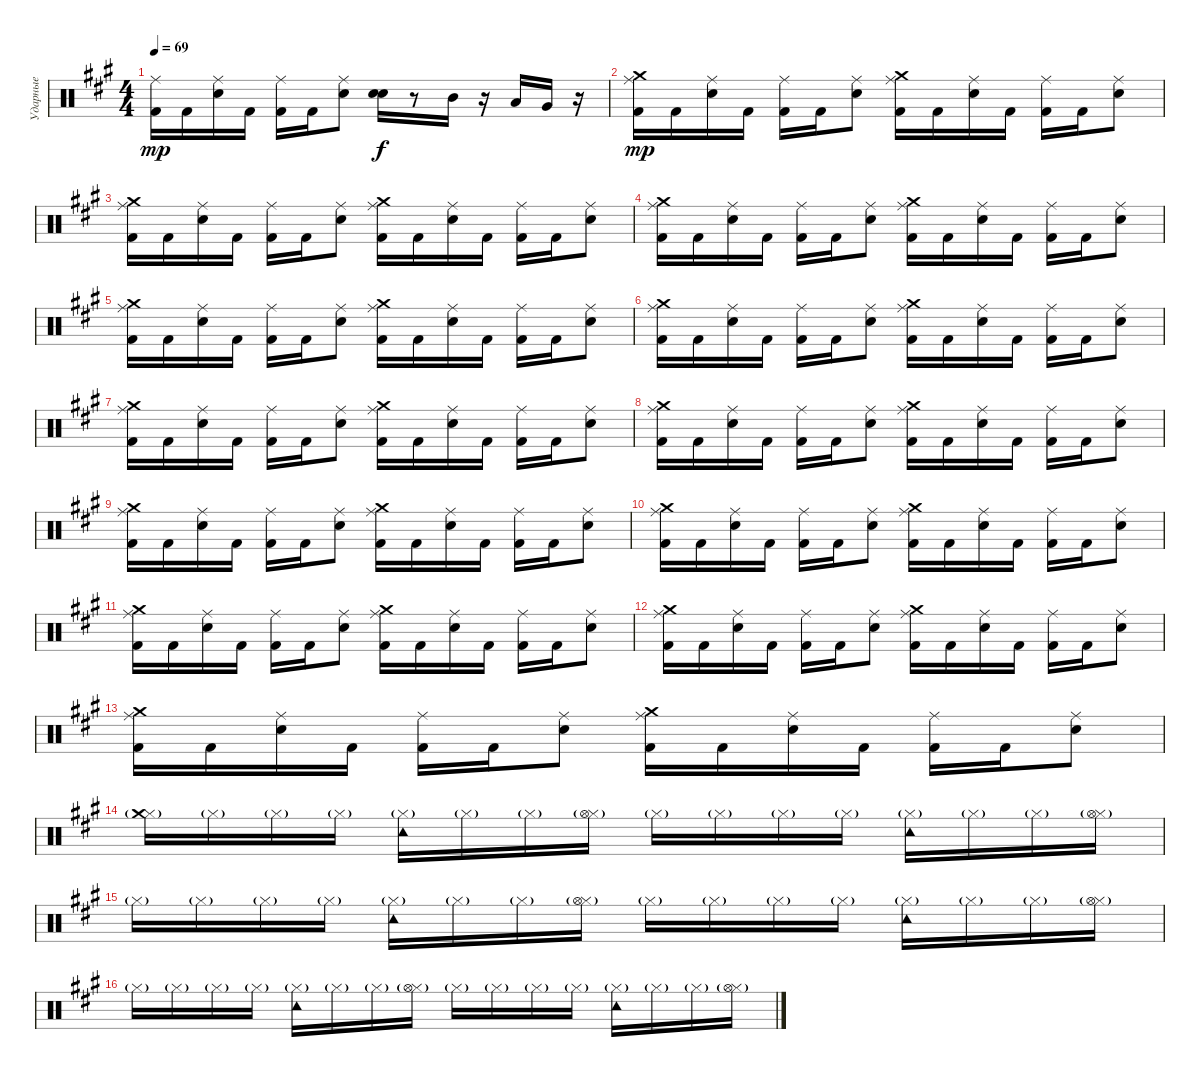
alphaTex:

\track ("Ударные" "Ударные") {instrument percussion}
\staff {score}
\articulation defaults
\ts (4 4)
\tempo 69
\clef neutral
\ks a
("Kick (hit) 2" "Ride (middle)").16{dy mp} "Kick (hit) 2".16 ("Electric Snare (hit)" "Ride (middle)").16 "Kick (hit) 2".16 ("Kick (hit) 2" "Ride (middle)").16 "Kick (hit) 2".16 ("Electric Snare (hit)" "Ride (middle)").8 ("Electric Snare (hit)" "Electric Snare (hit)").16{dy f} r.8 "Mid Tom (hit)".16 r.16 "Low Tom (hit)".16 "Very Low Tom (hit)".16 r.16 |
("Kick (hit) 2" "Ride (middle)" "Crash medium (hit)").16{dy mp} "Kick (hit) 2".16 ("Electric Snare (hit)" "Ride (middle)").16 "Kick (hit) 2".16 ("Kick (hit) 2" "Ride (middle)").16 "Kick (hit) 2".16 ("Electric Snare (hit)" "Ride (middle)").8 ("Kick (hit) 2" "Ride (middle)" "Crash medium (hit)").16 "Kick (hit) 2".16 ("Electric Snare (hit)" "Ride (middle)").16 "Kick (hit) 2".16 ("Kick (hit) 2" "Ride (middle)").16 "Kick (hit) 2".16 ("Electric Snare (hit)" "Ride (middle)").8 |
("Kick (hit) 2" "Ride (middle)" "Crash medium (hit)").16 "Kick (hit) 2".16 ("Electric Snare (hit)" "Ride (middle)").16 "Kick (hit) 2".16 ("Kick (hit) 2" "Ride (middle)").16 "Kick (hit) 2".16 ("Electric Snare (hit)" "Ride (middle)").8 ("Kick (hit) 2" "Ride (middle)" "Crash medium (hit)").16 "Kick (hit) 2".16 ("Electric Snare (hit)" "Ride (middle)").16 "Kick (hit) 2".16 ("Kick (hit) 2" "Ride (middle)").16 "Kick (hit) 2".16 ("Electric Snare (hit)" "Ride (middle)").8 |
("Kick (hit) 2" "Ride (middle)" "Crash medium (hit)").16 "Kick (hit) 2".16 ("Electric Snare (hit)" "Ride (middle)").16 "Kick (hit) 2".16 ("Kick (hit) 2" "Ride (middle)").16 "Kick (hit) 2".16 ("Electric Snare (hit)" "Ride (middle)").8 ("Kick (hit) 2" "Ride (middle)" "Crash medium (hit)").16 "Kick (hit) 2".16 ("Electric Snare (hit)" "Ride (middle)").16 "Kick (hit) 2".16 ("Kick (hit) 2" "Ride (middle)").16 "Kick (hit) 2".16 ("Electric Snare (hit)" "Ride (middle)").8 |
("Kick (hit) 2" "Ride (middle)" "Crash medium (hit)").16 "Kick (hit) 2".16 ("Electric Snare (hit)" "Ride (middle)").16 "Kick (hit) 2".16 ("Kick (hit) 2" "Ride (middle)").16 "Kick (hit) 2".16 ("Electric Snare (hit)" "Ride (middle)").8 ("Kick (hit) 2" "Ride (middle)" "Crash medium (hit)").16 "Kick (hit) 2".16 ("Electric Snare (hit)" "Ride (middle)").16 "Kick (hit) 2".16 ("Kick (hit) 2" "Ride (middle)").16 "Kick (hit) 2".16 ("Electric Snare (hit)" "Ride (middle)").8 |
("Kick (hit) 2" "Ride (middle)" "Crash medium (hit)").16 "Kick (hit) 2".16 ("Electric Snare (hit)" "Ride (middle)").16 "Kick (hit) 2".16 ("Kick (hit) 2" "Ride (middle)").16 "Kick (hit) 2".16 ("Electric Snare (hit)" "Ride (middle)").8 ("Kick (hit) 2" "Ride (middle)" "Crash medium (hit)").16 "Kick (hit) 2".16 ("Electric Snare (hit)" "Ride (middle)").16 "Kick (hit) 2".16 ("Kick (hit) 2" "Ride (middle)").16 "Kick (hit) 2".16 ("Electric Snare (hit)" "Ride (middle)").8 |
("Kick (hit) 2" "Ride (middle)" "Crash medium (hit)").16 "Kick (hit) 2".16 ("Electric Snare (hit)" "Ride (middle)").16 "Kick (hit) 2".16 ("Kick (hit) 2" "Ride (middle)").16 "Kick (hit) 2".16 ("Electric Snare (hit)" "Ride (middle)").8 ("Kick (hit) 2" "Ride (middle)" "Crash medium (hit)").16 "Kick (hit) 2".16 ("Electric Snare (hit)" "Ride (middle)").16 "Kick (hit) 2".16 ("Kick (hit) 2" "Ride (middle)").16 "Kick (hit) 2".16 ("Electric Snare (hit)" "Ride (middle)").8 |
("Kick (hit) 2" "Ride (middle)" "Crash medium (hit)").16 "Kick (hit) 2".16 ("Electric Snare (hit)" "Ride (middle)").16 "Kick (hit) 2".16 ("Kick (hit) 2" "Ride (middle)").16 "Kick (hit) 2".16 ("Electric Snare (hit)" "Ride (middle)").8 ("Kick (hit) 2" "Ride (middle)" "Crash medium (hit)").16 "Kick (hit) 2".16 ("Electric Snare (hit)" "Ride (middle)").16 "Kick (hit) 2".16 ("Kick (hit) 2" "Ride (middle)").16 "Kick (hit) 2".16 ("Electric Snare (hit)" "Ride (middle)").8 |
("Kick (hit) 2" "Ride (middle)" "Crash medium (hit)").16 "Kick (hit) 2".16 ("Electric Snare (hit)" "Ride (middle)").16 "Kick (hit) 2".16 ("Kick (hit) 2" "Ride (middle)").16 "Kick (hit) 2".16 ("Electric Snare (hit)" "Ride (middle)").8 ("Kick (hit) 2" "Ride (middle)" "Crash medium (hit)").16 "Kick (hit) 2".16 ("Electric Snare (hit)" "Ride (middle)").16 "Kick (hit) 2".16 ("Kick (hit) 2" "Ride (middle)").16 "Kick (hit) 2".16 ("Electric Snare (hit)" "Ride (middle)").8 |
("Kick (hit) 2" "Ride (middle)" "Crash medium (hit)").16 "Kick (hit) 2".16 ("Electric Snare (hit)" "Ride (middle)").16 "Kick (hit) 2".16 ("Kick (hit) 2" "Ride (middle)").16 "Kick (hit) 2".16 ("Electric Snare (hit)" "Ride (middle)").8 ("Kick (hit) 2" "Ride (middle)" "Crash medium (hit)").16 "Kick (hit) 2".16 ("Electric Snare (hit)" "Ride (middle)").16 "Kick (hit) 2".16 ("Kick (hit) 2" "Ride (middle)").16 "Kick (hit) 2".16 ("Electric Snare (hit)" "Ride (middle)").8 |
("Kick (hit) 2" "Ride (middle)" "Crash medium (hit)").16 "Kick (hit) 2".16 ("Electric Snare (hit)" "Ride (middle)").16 "Kick (hit) 2".16 ("Kick (hit) 2" "Ride (middle)").16 "Kick (hit) 2".16 ("Electric Snare (hit)" "Ride (middle)").8 ("Kick (hit) 2" "Ride (middle)" "Crash medium (hit)").16 "Kick (hit) 2".16 ("Electric Snare (hit)" "Ride (middle)").16 "Kick (hit) 2".16 ("Kick (hit) 2" "Ride (middle)").16 "Kick (hit) 2".16 ("Electric Snare (hit)" "Ride (middle)").8 |
("Kick (hit) 2" "Ride (middle)" "Crash medium (hit)").16 "Kick (hit) 2".16 ("Electric Snare (hit)" "Ride (middle)").16 "Kick (hit) 2".16 ("Kick (hit) 2" "Ride (middle)").16 "Kick (hit) 2".16 ("Electric Snare (hit)" "Ride (middle)").8 ("Kick (hit) 2" "Ride (middle)" "Crash medium (hit)").16 "Kick (hit) 2".16 ("Electric Snare (hit)" "Ride (middle)").16 "Kick (hit) 2".16 ("Kick (hit) 2" "Ride (middle)").16 "Kick (hit) 2".16 ("Electric Snare (hit)" "Ride (middle)").8 |
("Kick (hit) 2" "Ride (middle)" "Crash medium (hit)").16 "Kick (hit) 2".16 ("Electric Snare (hit)" "Ride (middle)").16 "Kick (hit) 2".16 ("Kick (hit) 2" "Ride (middle)").16 "Kick (hit) 2".16 ("Electric Snare (hit)" "Ride (middle)").8 ("Kick (hit) 2" "Ride (middle)" "Crash medium (hit)").16 "Kick (hit) 2".16 ("Electric Snare (hit)" "Ride (middle)").16 "Kick (hit) 2".16 ("Kick (hit) 2" "Ride (middle)").16 "Kick (hit) 2".16 ("Electric Snare (hit)" "Ride (middle)").8 |
("Hi-Hat (closed)"{g} "Crash medium (hit)").16 "Hi-Hat (closed)"{g}.16 "Hi-Hat (closed)"{g}.16 "Hi-Hat (closed)"{g}.16 ("Hi-Hat (closed)"{g} "Tambourine (hit)").16 "Hi-Hat (closed)"{g}.16 "Hi-Hat (closed)"{g}.16 ("Hi-Hat (closed)"{g} "Hi-Hat (open)"{g}).16 "Hi-Hat (closed)"{g}.16 "Hi-Hat (closed)"{g}.16 "Hi-Hat (closed)"{g}.16 "Hi-Hat (closed)"{g}.16 ("Hi-Hat (closed)"{g} "Tambourine (hit)").16 "Hi-Hat (closed)"{g}.16 "Hi-Hat (closed)"{g}.16 ("Hi-Hat (closed)"{g} "Hi-Hat (open)"{g}).16 |
"Hi-Hat (closed)"{g}.16 "Hi-Hat (closed)"{g}.16 "Hi-Hat (closed)"{g}.16 "Hi-Hat (closed)"{g}.16 ("Hi-Hat (closed)"{g} "Tambourine (hit)").16 "Hi-Hat (closed)"{g}.16 "Hi-Hat (closed)"{g}.16 ("Hi-Hat (closed)"{g} "Hi-Hat (open)"{g}).16 "Hi-Hat (closed)"{g}.16 "Hi-Hat (closed)"{g}.16 "Hi-Hat (closed)"{g}.16 "Hi-Hat (closed)"{g}.16 ("Hi-Hat (closed)"{g} "Tambourine (hit)").16 "Hi-Hat (closed)"{g}.16 "Hi-Hat (closed)"{g}.16 ("Hi-Hat (closed)"{g} "Hi-Hat (open)"{g}).16 |
"Hi-Hat (closed)"{g}.16 "Hi-Hat (closed)"{g}.16 "Hi-Hat (closed)"{g}.16 "Hi-Hat (closed)"{g}.16 ("Hi-Hat (closed)"{g} "Tambourine (hit)").16 "Hi-Hat (closed)"{g}.16 "Hi-Hat (closed)"{g}.16 ("Hi-Hat (closed)"{g} "Hi-Hat (open)"{g}).16 "Hi-Hat (closed)"{g}.16 "Hi-Hat (closed)"{g}.16 "Hi-Hat (closed)"{g}.16 "Hi-Hat (closed)"{g}.16 ("Hi-Hat (closed)"{g} "Tambourine (hit)").16 "Hi-Hat (closed)"{g}.16 "Hi-Hat (closed)"{g}.16 ("Hi-Hat (closed)"{g} "Hi-Hat (open)"{g}).16
